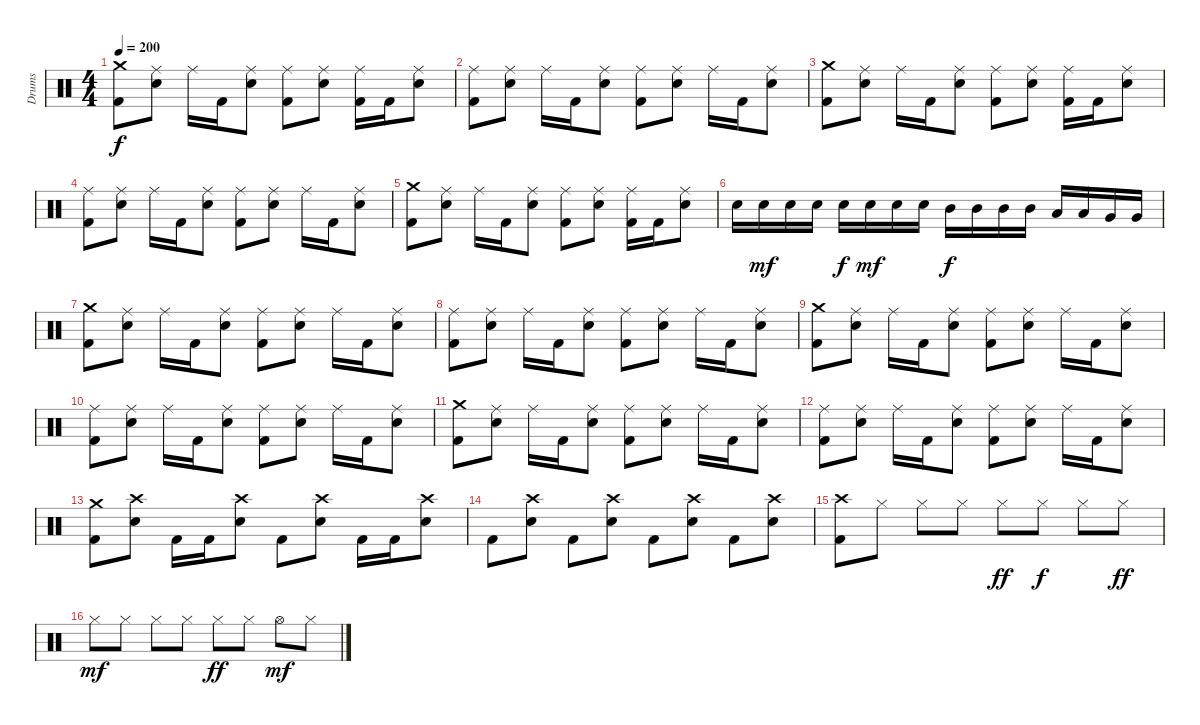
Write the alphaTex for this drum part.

\track ("Drums" "Drums") {instrument percussion}
\staff {score}
\articulation defaults
\ts (4 4)
\tempo 200
\clef neutral
\ks c
("Crash medium (hit)" "Kick (hit) 2").8{dy f} ("Ride (middle)" "Electric Snare (hit)").8 "Ride (middle)".16 "Kick (hit) 2".16 ("Ride (middle)" "Electric Snare (hit)").8 ("Ride (middle)" "Kick (hit) 2").8 ("Ride (middle)" "Electric Snare (hit)").8 ("Ride (middle)" "Kick (hit) 2").16 "Kick (hit) 2".16 ("Ride (middle)" "Electric Snare (hit)").8 |
("Ride (middle)" "Kick (hit) 2").8 ("Ride (middle)" "Electric Snare (hit)").8 "Ride (middle)".16 "Kick (hit) 2".16 ("Ride (middle)" "Electric Snare (hit)").8 ("Ride (middle)" "Kick (hit) 2").8 ("Ride (middle)" "Electric Snare (hit)").8 "Ride (middle)".16 "Kick (hit) 2".16 ("Ride (middle)" "Electric Snare (hit)").8 |
("Crash medium (hit)" "Kick (hit) 2").8 ("Ride (middle)" "Electric Snare (hit)").8 "Ride (middle)".16 "Kick (hit) 2".16 ("Ride (middle)" "Electric Snare (hit)").8 ("Ride (middle)" "Kick (hit) 2").8 ("Ride (middle)" "Electric Snare (hit)").8 ("Ride (middle)" "Kick (hit) 2").16 "Kick (hit) 2".16 ("Ride (middle)" "Electric Snare (hit)").8 |
("Ride (middle)" "Kick (hit) 2").8 ("Ride (middle)" "Electric Snare (hit)").8 "Ride (middle)".16 "Kick (hit) 2".16 ("Ride (middle)" "Electric Snare (hit)").8 ("Ride (middle)" "Kick (hit) 2").8 ("Ride (middle)" "Electric Snare (hit)").8 "Ride (middle)".16 "Kick (hit) 2".16 ("Ride (middle)" "Electric Snare (hit)").8 |
("Crash medium (hit)" "Kick (hit) 2").8 ("Ride (middle)" "Electric Snare (hit)").8 "Ride (middle)".16 "Kick (hit) 2".16 ("Ride (middle)" "Electric Snare (hit)").8 ("Ride (middle)" "Kick (hit) 2").8 ("Ride (middle)" "Electric Snare (hit)").8 ("Ride (middle)" "Kick (hit) 2").16 "Kick (hit) 2".16 ("Ride (middle)" "Electric Snare (hit)").8 |
"Electric Snare (hit)".16 "Electric Snare (hit)".16{dy mf} "Electric Snare (hit)".16 "Electric Snare (hit)".16 "Electric Snare (hit)".16{dy f} "Electric Snare (hit)".16{dy mf} "Electric Snare (hit)".16 "Electric Snare (hit)".16 "Mid Tom (hit)".16{dy f} "Mid Tom (hit)".16 "Mid Tom (hit)".16 "Mid Tom (hit)".16 "Low Tom (hit)".16 "Low Tom (hit)".16 "Very Low Tom (hit)".16 "Very Low Tom (hit)".16 |
("Crash medium (hit)" "Kick (hit) 2").8 ("Ride (middle)" "Electric Snare (hit)").8 "Ride (middle)".16 "Kick (hit) 2".16 ("Ride (middle)" "Electric Snare (hit)").8 ("Ride (middle)" "Kick (hit) 2").8 ("Ride (middle)" "Electric Snare (hit)").8 "Ride (middle)".16 "Kick (hit) 2".16 ("Ride (middle)" "Electric Snare (hit)").8 |
("Ride (middle)" "Kick (hit) 2").8 ("Ride (middle)" "Electric Snare (hit)").8 "Ride (middle)".16 "Kick (hit) 2".16 ("Ride (middle)" "Electric Snare (hit)").8 ("Ride (middle)" "Kick (hit) 2").8 ("Ride (middle)" "Electric Snare (hit)").8 "Ride (middle)".16 "Kick (hit) 2".16 ("Ride (middle)" "Electric Snare (hit)").8 |
("Crash medium (hit)" "Kick (hit) 2").8 ("Ride (middle)" "Electric Snare (hit)").8 "Ride (middle)".16 "Kick (hit) 2".16 ("Ride (middle)" "Electric Snare (hit)").8 ("Ride (middle)" "Kick (hit) 2").8 ("Ride (middle)" "Electric Snare (hit)").8 "Ride (middle)".16 "Kick (hit) 2".16 ("Ride (middle)" "Electric Snare (hit)").8 |
("Ride (middle)" "Kick (hit) 2").8 ("Ride (middle)" "Electric Snare (hit)").8 "Ride (middle)".16 "Kick (hit) 2".16 ("Ride (middle)" "Electric Snare (hit)").8 ("Ride (middle)" "Kick (hit) 2").8 ("Ride (middle)" "Electric Snare (hit)").8 "Ride (middle)".16 "Kick (hit) 2".16 ("Ride (middle)" "Electric Snare (hit)").8 |
("Crash medium (hit)" "Kick (hit) 2").8 ("Ride (middle)" "Electric Snare (hit)").8 "Ride (middle)".16 "Kick (hit) 2".16 ("Ride (middle)" "Electric Snare (hit)").8 ("Ride (middle)" "Kick (hit) 2").8 ("Ride (middle)" "Electric Snare (hit)").8 "Ride (middle)".16 "Kick (hit) 2".16 ("Ride (middle)" "Electric Snare (hit)").8 |
("Ride (middle)" "Kick (hit) 2").8 ("Ride (middle)" "Electric Snare (hit)").8 "Ride (middle)".16 "Kick (hit) 2".16 ("Ride (middle)" "Electric Snare (hit)").8 ("Ride (middle)" "Kick (hit) 2").8 ("Ride (middle)" "Electric Snare (hit)").8 "Ride (middle)".16 "Kick (hit) 2".16 ("Ride (middle)" "Electric Snare (hit)").8 |
("Crash medium (hit)" "Kick (hit) 2").8 ("Crash high (hit)" "Electric Snare (hit)").8 "Kick (hit) 2".16 "Kick (hit) 2".16 ("Crash high (hit)" "Electric Snare (hit)").8 "Kick (hit) 2".8 ("Crash high (hit)" "Electric Snare (hit)").8 "Kick (hit) 2".16 "Kick (hit) 2".16 ("Crash high (hit)" "Electric Snare (hit)").8 |
"Kick (hit) 2".8 ("Crash high (hit)" "Electric Snare (hit)").8 "Kick (hit) 2".8 ("Crash high (hit)" "Electric Snare (hit)").8 "Kick (hit) 2".8 ("Crash high (hit)" "Electric Snare (hit)").8 "Kick (hit) 2".8 ("Crash high (hit)" "Electric Snare (hit)").8 |
("Crash high (hit)" "Kick (hit) 2").8 "Hi-Hat (closed)".8 "Hi-Hat (closed)".8 "Hi-Hat (closed)".8 "Hi-Hat (closed)".8{dy ff} "Hi-Hat (closed)".8{dy f} "Hi-Hat (closed)".8 "Hi-Hat (closed)".8{dy ff} |
"Hi-Hat (closed)".8{dy mf} "Hi-Hat (closed)".8 "Hi-Hat (closed)".8 "Hi-Hat (closed)".8 "Hi-Hat (closed)".8{dy ff} "Hi-Hat (closed)".8 "Hi-Hat (open)".8{dy mf} "Hi-Hat (closed)".8
